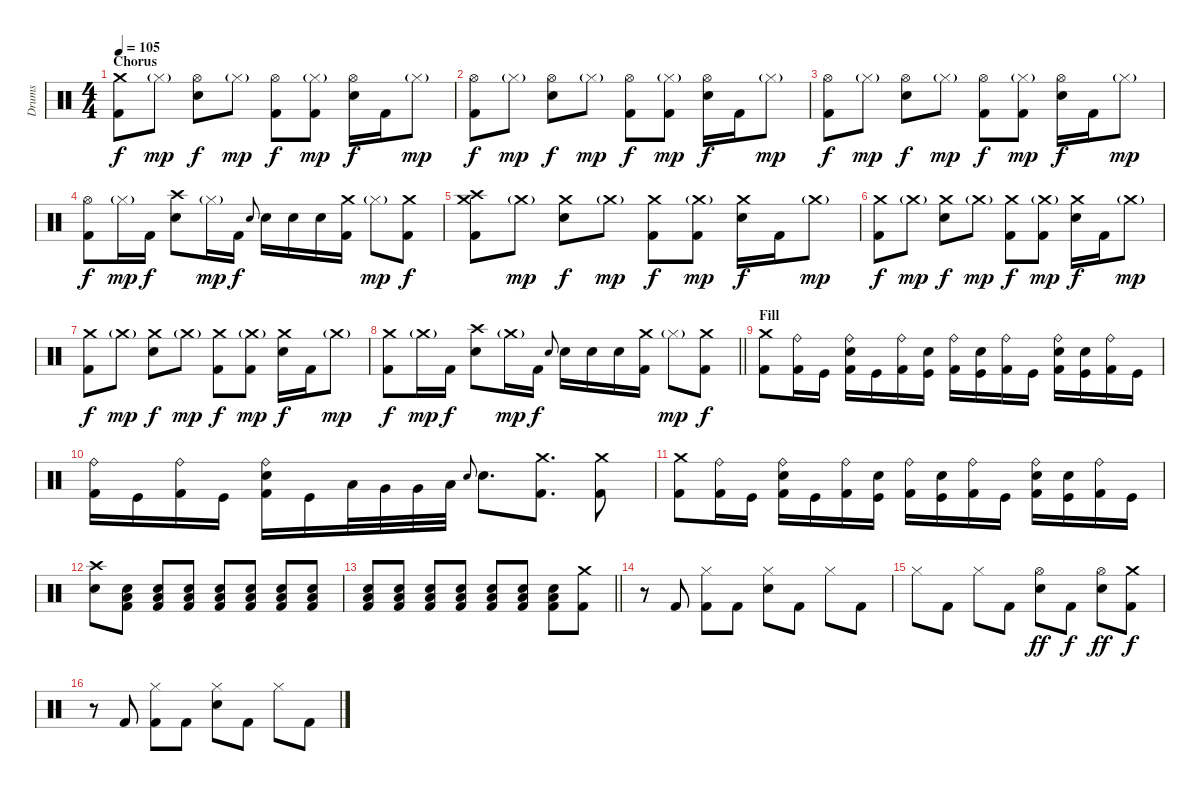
\track ("Drums" "Drums") {instrument percussion}
\staff {score}
\articulation defaults
\ts (4 4)
\section ("" "Chorus")
\tempo 105
\clef neutral
\ks c
("Crash medium (hit)" "Kick (hit) 2").8{dy f} "Hi-Hat (closed)"{g}.8{dy mp} ("Hi-Hat (open)" "Snare (hit) 2").8{dy f} "Hi-Hat (closed)"{g}.8{dy mp} ("Hi-Hat (open)" "Kick (hit) 2").8{dy f} ("Hi-Hat (closed)"{g} "Kick (hit) 2").8{dy mp} ("Hi-Hat (open)" "Snare (hit) 2").16{dy f} "Kick (hit) 2".16 "Hi-Hat (closed)"{g}.8{dy mp} |
("Hi-Hat (open)" "Kick (hit) 2").8{dy f} "Hi-Hat (closed)"{g}.8{dy mp} ("Hi-Hat (open)" "Snare (hit) 2").8{dy f} "Hi-Hat (closed)"{g}.8{dy mp} ("Hi-Hat (open)" "Kick (hit) 2").8{dy f} ("Hi-Hat (closed)"{g} "Kick (hit) 2").8{dy mp} ("Hi-Hat (open)" "Snare (hit) 2").16{dy f} "Kick (hit) 2".16 "Hi-Hat (closed)"{g}.8{dy mp} |
("Hi-Hat (open)" "Kick (hit) 2").8{dy f} "Hi-Hat (closed)"{g}.8{dy mp} ("Hi-Hat (open)" "Snare (hit) 2").8{dy f} "Hi-Hat (closed)"{g}.8{dy mp} ("Hi-Hat (open)" "Kick (hit) 2").8{dy f} ("Hi-Hat (closed)"{g} "Kick (hit) 2").8{dy mp} ("Hi-Hat (open)" "Snare (hit) 2").16{dy f} "Kick (hit) 2".16 "Hi-Hat (closed)"{g}.8{dy mp} |
("Hi-Hat (open)" "Kick (hit) 2").8{dy f} "Hi-Hat (closed)"{g}.16{dy mp} "Kick (hit) 2".16{dy f} ("Crash high (hit)" "Snare (hit) 2").8 "Hi-Hat (closed)"{g}.16{dy mp} "Kick (hit) 2".16{dy f} "Electric Snare (hit)".8{gr onbeat} "Snare (hit) 2".16 "Snare (hit) 2".16 "Snare (hit) 2".16 ("Crash medium (hit)" "Kick (hit) 2").16 "Hi-Hat (closed)"{g}.8{dy mp} ("Crash medium (hit)" "Kick (hit) 2").8{dy f} |
("Crash medium (hit)" "Crash high (hit)" "Kick (hit) 2").8 "Crash medium (hit)"{g}.8{dy mp} ("Crash medium (hit)" "Snare (hit) 2").8{dy f} "Crash medium (hit)"{g}.8{dy mp} ("Crash medium (hit)" "Kick (hit) 2").8{dy f} ("Crash medium (hit)"{g} "Kick (hit) 2").8{dy mp} ("Crash medium (hit)" "Snare (hit) 2").16{dy f} "Kick (hit) 2".16 "Crash medium (hit)"{g}.8{dy mp} |
("Crash medium (hit)" "Kick (hit) 2").8{dy f} "Crash medium (hit)"{g}.8{dy mp} ("Crash medium (hit)" "Snare (hit) 2").8{dy f} "Crash medium (hit)"{g}.8{dy mp} ("Crash medium (hit)" "Kick (hit) 2").8{dy f} ("Crash medium (hit)"{g} "Kick (hit) 2").8{dy mp} ("Crash medium (hit)" "Snare (hit) 2").16{dy f} "Kick (hit) 2".16 "Crash medium (hit)"{g}.8{dy mp} |
("Crash medium (hit)" "Kick (hit) 2").8{dy f} "Crash medium (hit)"{g}.8{dy mp} ("Crash medium (hit)" "Snare (hit) 2").8{dy f} "Crash medium (hit)"{g}.8{dy mp} ("Crash medium (hit)" "Kick (hit) 2").8{dy f} ("Crash medium (hit)"{g} "Kick (hit) 2").8{dy mp} ("Crash medium (hit)" "Snare (hit) 2").16{dy f} "Kick (hit) 2".16 "Crash medium (hit)"{g}.8{dy mp} |
\barLineRight lightlight
("Crash medium (hit)" "Kick (hit) 2").8{dy f} "Crash medium (hit)"{g}.16{dy mp} "Kick (hit) 2".16{dy f} ("Crash high (hit)" "Snare (hit) 2").8 "Crash medium (hit)"{g}.16{dy mp} "Kick (hit) 2".16{dy f} "Electric Snare (hit)".8{gr onbeat} "Snare (hit) 2".16 "Snare (hit) 2".16 "Snare (hit) 2".16 ("Crash medium (hit)" "Kick (hit) 2").16 "Hi-Hat (closed)"{g}.8{dy mp} ("Crash medium (hit)" "Kick (hit) 2").8{dy f} |
\section ("" "Fill")
("Crash medium (hit)" "Kick (hit) 2").8 ("Ride (bell)" "Kick (hit) 2").16 "Kick (hit)".16 ("Ride (bell)" "Snare (hit) 2" "Kick (hit) 2").16 "Kick (hit)".16 ("Ride (bell)" "Kick (hit) 2").16 ("Snare (hit) 2" "Kick (hit)").16 ("Ride (bell)" "Kick (hit) 2").16 ("Snare (hit) 2" "Kick (hit)").16 ("Ride (bell)" "Kick (hit) 2").16 "Kick (hit)".16 ("Ride (bell)" "Snare (hit) 2" "Kick (hit) 2").16 ("Snare (hit) 2" "Kick (hit)").16 ("Ride (bell)" "Kick (hit) 2").16 "Kick (hit)".16 |
("Ride (bell)" "Kick (hit) 2").16 "Kick (hit)".16 ("Ride (bell)" "Kick (hit) 2").16 "Kick (hit)".16 ("Ride (bell)" "Snare (hit) 2" "Kick (hit) 2").16 "Kick (hit)".16 "Low Tom (hit)".32 "Very Low Tom (hit)".32 "Very Low Tom (hit)".32 "Low Floor Tom (hit)".32 "Electric Snare (hit)".8{gr onbeat} "Snare (hit) 2".8{d} ("Crash medium (hit)" "Kick (hit) 2").8{d} ("Crash medium (hit)" "Kick (hit) 2").8 |
("Crash medium (hit)" "Kick (hit) 2").8 ("Ride (bell)" "Kick (hit) 2").16 "Kick (hit)".16 ("Ride (bell)" "Snare (hit) 2" "Kick (hit) 2").16 "Kick (hit)".16 ("Ride (bell)" "Kick (hit) 2").16 ("Snare (hit) 2" "Kick (hit)").16 ("Ride (bell)" "Kick (hit) 2").16 ("Snare (hit) 2" "Kick (hit)").16 ("Ride (bell)" "Kick (hit) 2").16 "Kick (hit)".16 ("Ride (bell)" "Snare (hit) 2" "Kick (hit) 2").16 ("Snare (hit) 2" "Kick (hit)").16 ("Ride (bell)" "Kick (hit) 2").16 "Kick (hit)".16 |
("Crash high (hit)" "Snare (hit) 2").8 ("Low Floor Tom (hit)" "Snare (hit) 2" "Kick (hit) 2").8 ("Low Floor Tom (hit)" "Snare (hit) 2" "Kick (hit) 2").8 ("Low Floor Tom (hit)" "Snare (hit) 2" "Kick (hit) 2").8 ("Low Floor Tom (hit)" "Snare (hit) 2" "Kick (hit) 2").8 ("Low Floor Tom (hit)" "Snare (hit) 2" "Kick (hit) 2").8 ("Low Floor Tom (hit)" "Snare (hit) 2" "Kick (hit) 2").8 ("Low Floor Tom (hit)" "Snare (hit) 2" "Kick (hit) 2").8 |
\barLineRight lightlight
("Low Floor Tom (hit)" "Snare (hit) 2" "Kick (hit) 2").8 ("Low Floor Tom (hit)" "Snare (hit) 2" "Kick (hit) 2").8 ("Low Floor Tom (hit)" "Snare (hit) 2" "Kick (hit) 2").8 ("Low Floor Tom (hit)" "Snare (hit) 2" "Kick (hit) 2").8 ("Low Floor Tom (hit)" "Snare (hit) 2" "Kick (hit) 2").8 ("Low Floor Tom (hit)" "Snare (hit) 2" "Kick (hit) 2").8 ("Low Floor Tom (hit)" "Snare (hit) 2" "Kick (hit) 2").8 ("Crash medium (hit)" "Kick (hit) 2").8 |
r.8 "Kick (hit) 2".8 ("Hi-Hat (closed)" "Kick (hit) 2").8 "Kick (hit) 2".8 ("Hi-Hat (closed)" "Snare (hit) 2").8 "Kick (hit) 2".8 "Hi-Hat (closed)".8 "Kick (hit) 2".8 |
"Hi-Hat (closed)".8 "Kick (hit) 2".8 "Hi-Hat (closed)".8 "Kick (hit) 2".8 ("Hi-Hat (open)" "Snare (hit) 2").8{dy ff} "Kick (hit) 2".8{dy f} ("Hi-Hat (open)" "Snare (hit) 2").8{dy ff} ("Crash medium (hit)" "Kick (hit) 2").8{dy f} |
r.8 "Kick (hit) 2".8 ("Hi-Hat (closed)" "Kick (hit) 2").8 "Kick (hit) 2".8 ("Hi-Hat (closed)" "Snare (hit) 2").8 "Kick (hit) 2".8 "Hi-Hat (closed)".8 "Kick (hit) 2".8
